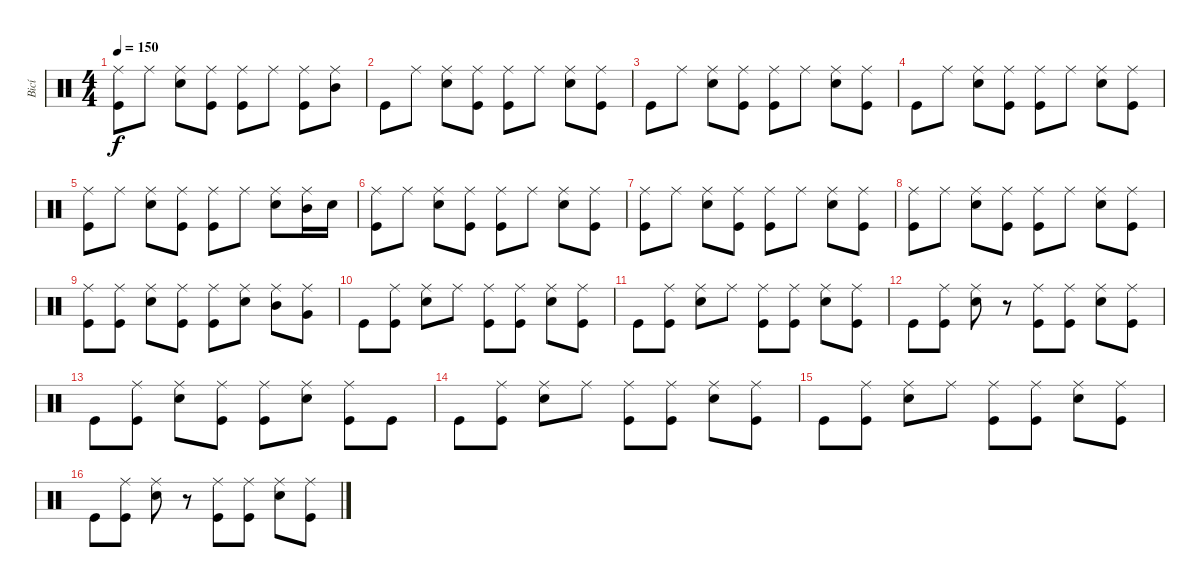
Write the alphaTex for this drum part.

\track ("Bicí" "Bicí") {instrument percussion}
\staff {score}
\articulation defaults
\ts (4 4)
\tempo 150
\clef neutral
\ks c
("Ride (middle)" "Kick (hit)").8{dy f} "Ride (middle)".8 ("Ride (middle)" "Snare (hit) 2").8 ("Ride (middle)" "Kick (hit)").8 ("Ride (middle)" "Kick (hit)").8 "Ride (middle)".8 ("Ride (middle)" "Kick (hit)").8 ("Ride (middle)" "Mid Tom (hit)").8 |
"Kick (hit)".8 "Ride (middle)".8 ("Ride (middle)" "Snare (hit) 2").8 ("Ride (middle)" "Kick (hit)").8 ("Ride (middle)" "Kick (hit)").8 "Ride (middle)".8 ("Ride (middle)" "Snare (hit) 2").8 ("Ride (middle)" "Kick (hit)").8 |
"Kick (hit)".8 "Ride (middle)".8 ("Ride (middle)" "Snare (hit) 2").8 ("Ride (middle)" "Kick (hit)").8 ("Ride (middle)" "Kick (hit)").8 "Ride (middle)".8 ("Ride (middle)" "Snare (hit) 2").8 ("Ride (middle)" "Kick (hit)").8 |
"Kick (hit)".8 "Ride (middle)".8 ("Ride (middle)" "Snare (hit) 2").8 ("Ride (middle)" "Kick (hit)").8 ("Ride (middle)" "Kick (hit)").8 "Ride (middle)".8 ("Ride (middle)" "Snare (hit) 2").8 ("Ride (middle)" "Kick (hit)").8 |
("Ride (middle)" "Kick (hit)").8 "Ride (middle)".8 ("Ride (middle)" "Snare (hit) 2").8 ("Ride (middle)" "Kick (hit)").8 ("Ride (middle)" "Kick (hit)").8 "Ride (middle)".8 ("Ride (middle)" "Snare (hit) 2").8 ("Ride (middle)" "Mid Tom (hit)").16 "Snare (hit) 2".16 |
("Ride (middle)" "Kick (hit)").8 "Ride (middle)".8 ("Ride (middle)" "Snare (hit) 2").8 ("Ride (middle)" "Kick (hit)").8 ("Ride (middle)" "Kick (hit)").8 "Ride (middle)".8 ("Ride (middle)" "Snare (hit) 2").8 ("Ride (middle)" "Kick (hit)").8 |
("Ride (middle)" "Kick (hit)").8 "Ride (middle)".8 ("Ride (middle)" "Snare (hit) 2").8 ("Ride (middle)" "Kick (hit)").8 ("Ride (middle)" "Kick (hit)").8 "Ride (middle)".8 ("Ride (middle)" "Snare (hit) 2").8 ("Ride (middle)" "Kick (hit)").8 |
("Ride (middle)" "Kick (hit)").8 "Ride (middle)".8 ("Ride (middle)" "Snare (hit) 2").8 ("Ride (middle)" "Kick (hit)").8 ("Ride (middle)" "Kick (hit)").8 "Ride (middle)".8 ("Ride (middle)" "Snare (hit) 2").8 ("Ride (middle)" "Kick (hit)").8 |
("Ride (middle)" "Kick (hit)").8 ("Ride (middle)" "Kick (hit)").8 ("Ride (middle)" "Snare (hit) 2").8 ("Ride (middle)" "Kick (hit)").8 ("Ride (middle)" "Kick (hit)").8 ("Ride (middle)" "Snare (hit) 2").8 ("Ride (middle)" "Mid Tom (hit)").8 ("Ride (middle)" "Very Low Tom (hit)").8 |
"Kick (hit)".8 ("Ride (middle)" "Kick (hit)").8 ("Ride (middle)" "Snare (hit) 2").8 "Ride (middle)".8 ("Ride (middle)" "Kick (hit)").8 ("Ride (middle)" "Kick (hit)").8 ("Ride (middle)" "Snare (hit) 2").8 ("Ride (middle)" "Kick (hit)").8 |
"Kick (hit)".8 ("Ride (middle)" "Kick (hit)").8 ("Ride (middle)" "Snare (hit) 2").8 "Ride (middle)".8 ("Ride (middle)" "Kick (hit)").8 ("Ride (middle)" "Kick (hit)").8 ("Ride (middle)" "Snare (hit) 2").8 ("Ride (middle)" "Kick (hit)").8 |
"Kick (hit)".8 ("Ride (middle)" "Kick (hit)").8 ("Ride (middle)" "Snare (hit) 2").8 r.8 ("Ride (middle)" "Kick (hit)").8 ("Ride (middle)" "Kick (hit)").8 ("Ride (middle)" "Snare (hit) 2").8 ("Ride (middle)" "Kick (hit)").8 |
"Kick (hit)".8 ("Ride (middle)" "Kick (hit)").8 ("Ride (middle)" "Snare (hit) 2").8 ("Ride (middle)" "Kick (hit)").8 ("Ride (middle)" "Kick (hit)").8 ("Ride (middle)" "Snare (hit) 2").8 ("Ride (middle)" "Kick (hit)").8 "Kick (hit)".8 |
"Kick (hit)".8 ("Ride (middle)" "Kick (hit)").8 ("Ride (middle)" "Snare (hit) 2").8 "Ride (middle)".8 ("Ride (middle)" "Kick (hit)").8 ("Ride (middle)" "Kick (hit)").8 ("Ride (middle)" "Snare (hit) 2").8 ("Ride (middle)" "Kick (hit)").8 |
"Kick (hit)".8 ("Ride (middle)" "Kick (hit)").8 ("Ride (middle)" "Snare (hit) 2").8 "Ride (middle)".8 ("Ride (middle)" "Kick (hit)").8 ("Ride (middle)" "Kick (hit)").8 ("Ride (middle)" "Snare (hit) 2").8 ("Ride (middle)" "Kick (hit)").8 |
"Kick (hit)".8 ("Ride (middle)" "Kick (hit)").8 ("Ride (middle)" "Snare (hit) 2").8 r.8 ("Ride (middle)" "Kick (hit)").8 ("Ride (middle)" "Kick (hit)").8 ("Ride (middle)" "Snare (hit) 2").8 ("Ride (middle)" "Kick (hit)").8
